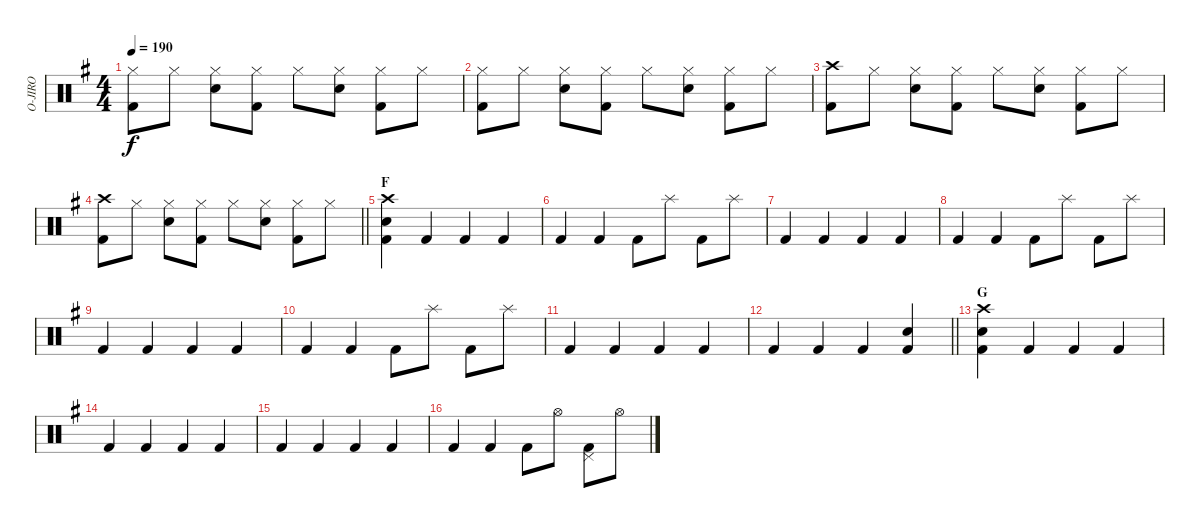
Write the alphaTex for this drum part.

\track ("O-JIRO" "O-JIRO") {instrument percussion}
\staff {score}
\articulation defaults
\ts (4 4)
\tempo 190
\clef neutral
\ks g
("Hi-Hat (closed)" "Kick (hit) 2").8{dy f} "Hi-Hat (closed)".8 ("Hi-Hat (closed)" "Snare (hit) 2").8 ("Hi-Hat (closed)" "Kick (hit) 2").8 "Hi-Hat (closed)".8 ("Hi-Hat (closed)" "Snare (hit) 2").8 ("Hi-Hat (closed)" "Kick (hit) 2").8 "Hi-Hat (closed)".8 |
("Hi-Hat (closed)" "Kick (hit) 2").8 "Hi-Hat (closed)".8 ("Hi-Hat (closed)" "Snare (hit) 2").8 ("Hi-Hat (closed)" "Kick (hit) 2").8 "Hi-Hat (closed)".8 ("Hi-Hat (closed)" "Snare (hit) 2").8 ("Hi-Hat (closed)" "Kick (hit) 2").8 "Hi-Hat (closed)".8 |
("Crash high (hit)" "Kick (hit) 2").8 "Hi-Hat (closed)".8 ("Hi-Hat (closed)" "Snare (hit) 2").8 ("Hi-Hat (closed)" "Kick (hit) 2").8 "Hi-Hat (closed)".8 ("Hi-Hat (closed)" "Snare (hit) 2").8 ("Hi-Hat (closed)" "Kick (hit) 2").8 "Hi-Hat (closed)".8 |
\barLineRight lightlight
("Crash high (hit)" "Kick (hit) 2").8 "Hi-Hat (closed)".8 ("Hi-Hat (closed)" "Snare (hit) 2").8 ("Hi-Hat (closed)" "Kick (hit) 2").8 "Hi-Hat (closed)".8 ("Hi-Hat (closed)" "Snare (hit) 2").8 ("Hi-Hat (closed)" "Kick (hit) 2").8 "Hi-Hat (closed)".8 |
\section ("" "F")
("Crash high (hit)" "Snare (hit) 2" "Kick (hit) 2").4 "Kick (hit) 2".4 "Kick (hit) 2".4 "Kick (hit) 2".4 |
"Kick (hit) 2".4 "Kick (hit) 2".4 "Kick (hit) 2".8 "Splash (hit)".8 "Kick (hit) 2".8 "Splash (hit)".8 |
"Kick (hit) 2".4 "Kick (hit) 2".4 "Kick (hit) 2".4 "Kick (hit) 2".4 |
"Kick (hit) 2".4 "Kick (hit) 2".4 "Kick (hit) 2".8 "Splash (hit)".8 "Kick (hit) 2".8 "Splash (hit)".8 |
"Kick (hit) 2".4 "Kick (hit) 2".4 "Kick (hit) 2".4 "Kick (hit) 2".4 |
"Kick (hit) 2".4 "Kick (hit) 2".4 "Kick (hit) 2".8 "Splash (hit)".8 "Kick (hit) 2".8 "Splash (hit)".8 |
"Kick (hit) 2".4 "Kick (hit) 2".4 "Kick (hit) 2".4 "Kick (hit) 2".4 |
\barLineRight lightlight "Kick (hit) 2".4 "Kick (hit) 2".4 "Kick (hit) 2".4
("Kick (hit) 2" "Snare (hit) 2").4 |
\section ("" "G")
("Crash high (hit)" "Snare (hit) 2" "Kick (hit) 2").4 "Kick (hit) 2".4 "Kick (hit) 2".4 "Kick (hit) 2".4 |
"Kick (hit) 2".4 "Kick (hit) 2".4 "Kick (hit) 2".4 "Kick (hit) 2".4 |
"Kick (hit) 2".4 "Kick (hit) 2".4 "Kick (hit) 2".4 "Kick (hit) 2".4 |
"Kick (hit) 2".4 "Kick (hit) 2".4 "Kick (hit) 2".8 "Hi-Hat (open)".8 ("Pedal Hi-Hat (hit)" "Kick (hit) 2").8 "Hi-Hat (open)".8
